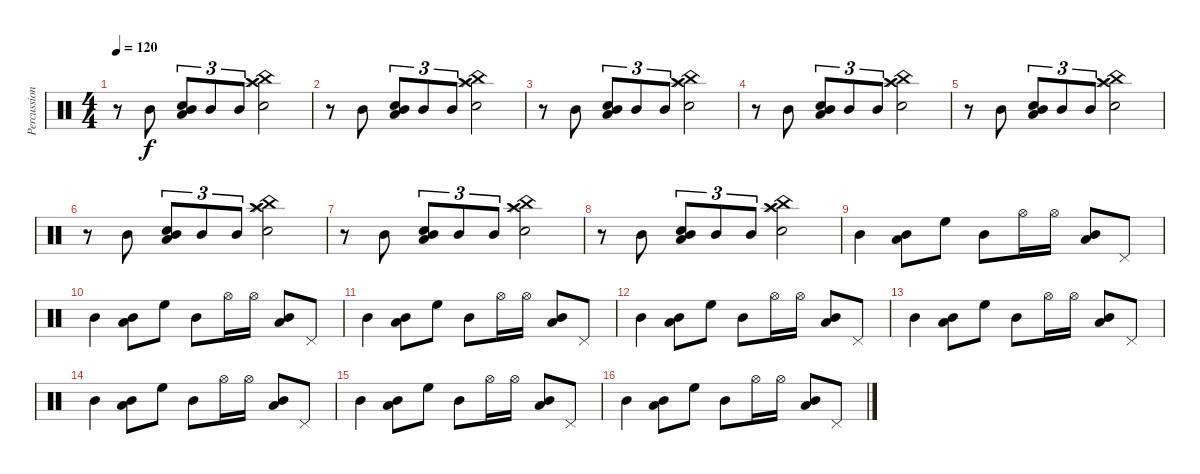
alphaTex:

\track ("Percussion" "Percussion") {instrument percussion}
\staff {score}
\articulation defaults
\ts (4 4)
\tempo 120
\clef neutral
\ks c
r.8{dy f} "Mid Tom (hit)".8 ("Mid Tom (hit)" "Snare (hit) 2" "Low Floor Tom (hit)").8{tu (3 2)} "Mid Tom (hit)".8{tu (3 2)} "Mid Tom (hit)".8{tu (3 2)} ("Crash high (hit)" "China (hit)" "Splash (hit)" "Snare (hit) 2").2 |
r.8 "Mid Tom (hit)".8 ("Mid Tom (hit)" "Snare (hit) 2" "Low Floor Tom (hit)").8{tu (3 2)} "Mid Tom (hit)".8{tu (3 2)} "Mid Tom (hit)".8{tu (3 2)} ("Crash high (hit)" "China (hit)" "Splash (hit)" "Snare (hit) 2").2 |
r.8 "Mid Tom (hit)".8 ("Mid Tom (hit)" "Snare (hit) 2" "Low Floor Tom (hit)").8{tu (3 2)} "Mid Tom (hit)".8{tu (3 2)} "Mid Tom (hit)".8{tu (3 2)} ("Crash high (hit)" "China (hit)" "Splash (hit)" "Snare (hit) 2").2 |
r.8 "Mid Tom (hit)".8 ("Mid Tom (hit)" "Snare (hit) 2" "Low Floor Tom (hit)").8{tu (3 2)} "Mid Tom (hit)".8{tu (3 2)} "Mid Tom (hit)".8{tu (3 2)} ("Crash high (hit)" "China (hit)" "Splash (hit)" "Snare (hit) 2").2 |
r.8 "Mid Tom (hit)".8 ("Mid Tom (hit)" "Snare (hit) 2" "Low Floor Tom (hit)").8{tu (3 2)} "Mid Tom (hit)".8{tu (3 2)} "Mid Tom (hit)".8{tu (3 2)} ("Crash high (hit)" "China (hit)" "Splash (hit)" "Snare (hit) 2").2 |
r.8 "Mid Tom (hit)".8 ("Mid Tom (hit)" "Snare (hit) 2" "Low Floor Tom (hit)").8{tu (3 2)} "Mid Tom (hit)".8{tu (3 2)} "Mid Tom (hit)".8{tu (3 2)} ("Crash high (hit)" "China (hit)" "Splash (hit)" "Snare (hit) 2").2 |
r.8 "Mid Tom (hit)".8 ("Mid Tom (hit)" "Snare (hit) 2" "Low Floor Tom (hit)").8{tu (3 2)} "Mid Tom (hit)".8{tu (3 2)} "Mid Tom (hit)".8{tu (3 2)} ("Crash high (hit)" "China (hit)" "Splash (hit)" "Snare (hit) 2").2 |
r.8 "Mid Tom (hit)".8 ("Mid Tom (hit)" "Snare (hit) 2" "Low Floor Tom (hit)").8{tu (3 2)} "Mid Tom (hit)".8{tu (3 2)} "Mid Tom (hit)".8{tu (3 2)} ("Crash high (hit)" "China (hit)" "Splash (hit)" "Snare (hit) 2").2 |
"Mid Tom (hit)".4 ("Mid Tom (hit)" "Low Floor Tom (hit)").8 "High Floor Tom (hit)".8 "Mid Tom (hit)".8 "Hi-Hat (open)".16 "Hi-Hat (open)".16 ("Mid Tom (hit)" "Low Floor Tom (hit)").8 "Pedal Hi-Hat (hit)".8 |
"Mid Tom (hit)".4 ("Mid Tom (hit)" "Low Floor Tom (hit)").8 "High Floor Tom (hit)".8 "Mid Tom (hit)".8 "Hi-Hat (open)".16 "Hi-Hat (open)".16 ("Mid Tom (hit)" "Low Floor Tom (hit)").8 "Pedal Hi-Hat (hit)".8 |
"Mid Tom (hit)".4 ("Mid Tom (hit)" "Low Floor Tom (hit)").8 "High Floor Tom (hit)".8 "Mid Tom (hit)".8 "Hi-Hat (open)".16 "Hi-Hat (open)".16 ("Mid Tom (hit)" "Low Floor Tom (hit)").8 "Pedal Hi-Hat (hit)".8 |
"Mid Tom (hit)".4 ("Mid Tom (hit)" "Low Floor Tom (hit)").8 "High Floor Tom (hit)".8 "Mid Tom (hit)".8 "Hi-Hat (open)".16 "Hi-Hat (open)".16 ("Mid Tom (hit)" "Low Floor Tom (hit)").8 "Pedal Hi-Hat (hit)".8 |
"Mid Tom (hit)".4 ("Mid Tom (hit)" "Low Floor Tom (hit)").8 "High Floor Tom (hit)".8 "Mid Tom (hit)".8 "Hi-Hat (open)".16 "Hi-Hat (open)".16 ("Mid Tom (hit)" "Low Floor Tom (hit)").8 "Pedal Hi-Hat (hit)".8 |
"Mid Tom (hit)".4 ("Mid Tom (hit)" "Low Floor Tom (hit)").8 "High Floor Tom (hit)".8 "Mid Tom (hit)".8 "Hi-Hat (open)".16 "Hi-Hat (open)".16 ("Mid Tom (hit)" "Low Floor Tom (hit)").8 "Pedal Hi-Hat (hit)".8 |
"Mid Tom (hit)".4 ("Mid Tom (hit)" "Low Floor Tom (hit)").8 "High Floor Tom (hit)".8 "Mid Tom (hit)".8 "Hi-Hat (open)".16 "Hi-Hat (open)".16 ("Mid Tom (hit)" "Low Floor Tom (hit)").8 "Pedal Hi-Hat (hit)".8 |
"Mid Tom (hit)".4 ("Mid Tom (hit)" "Low Floor Tom (hit)").8 "High Floor Tom (hit)".8 "Mid Tom (hit)".8 "Hi-Hat (open)".16 "Hi-Hat (open)".16 ("Mid Tom (hit)" "Low Floor Tom (hit)").8 "Pedal Hi-Hat (hit)".8
